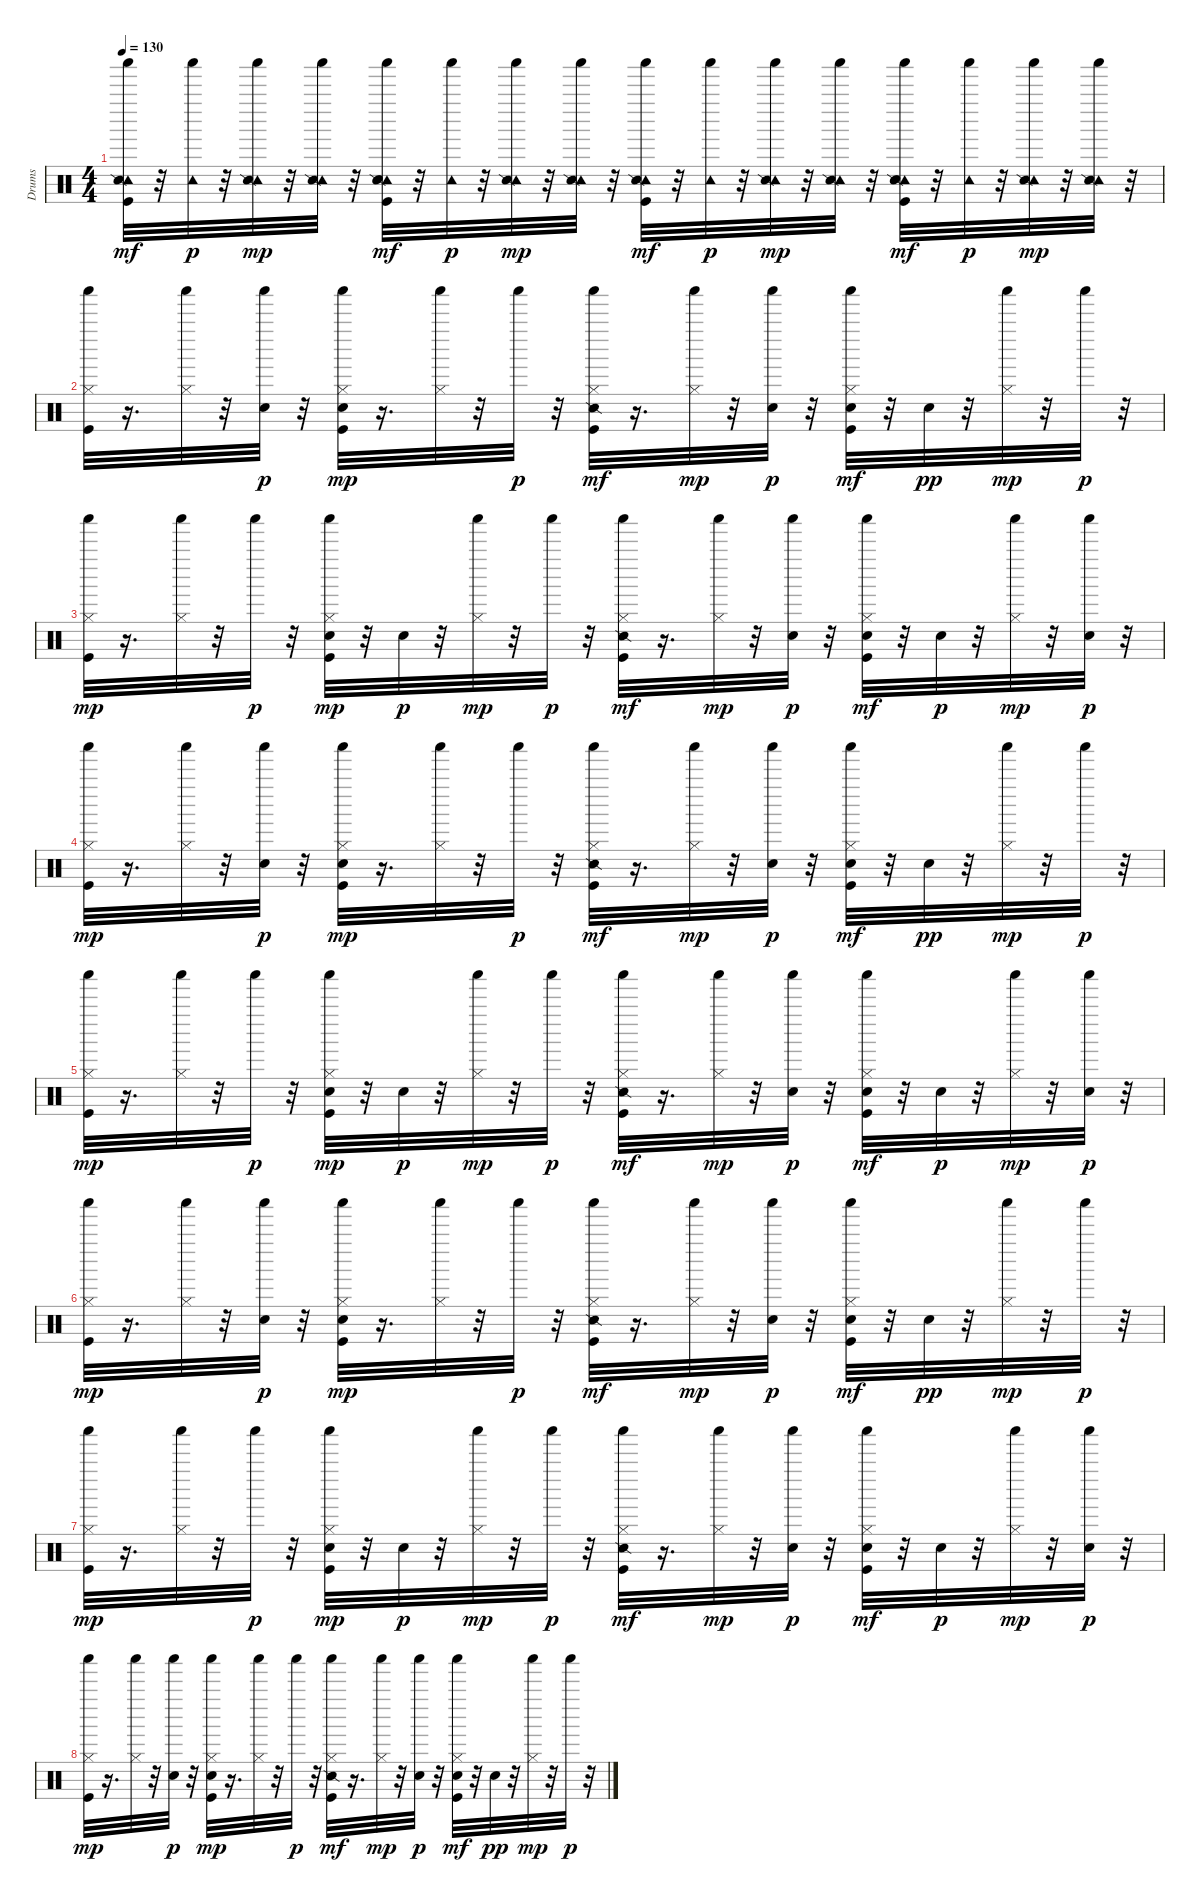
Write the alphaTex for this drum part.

\track ("Drums" "Drums") {instrument percussion}
\staff {score}
\articulation defaults
\ts (4 4)
\tempo 130
\clef neutral
\ks c
("Tambourine (hit)" "Shaker (hit)" "Kick (hit)" "Snare (side stick) 2").32{dy mf} r.32 ("Tambourine (hit)" "Shaker (hit)").32{dy p} r.32 ("Tambourine (hit)" "Shaker (hit)" "Snare (side stick) 2").32{dy mp} r.32 ("Tambourine (hit)" "Shaker (hit)" "Snare (side stick) 2").32 r.32 ("Tambourine (hit)" "Shaker (hit)" "Hand Clap (hit)" "Kick (hit)" "Snare (side stick) 2").32{dy mf} r.32 ("Tambourine (hit)" "Shaker (hit)").32{dy p} r.32 ("Tambourine (hit)" "Shaker (hit)" "Snare (side stick) 2").32{dy mp} r.32 ("Tambourine (hit)" "Shaker (hit)" "Snare (side stick) 2").32 r.32 ("Tambourine (hit)" "Shaker (hit)" "Kick (hit)" "Snare (side stick) 2").32{dy mf} r.32 ("Tambourine (hit)" "Shaker (hit)").32{dy p} r.32 ("Tambourine (hit)" "Shaker (hit)" "Snare (side stick) 2").32{dy mp} r.32 ("Tambourine (hit)" "Shaker (hit)" "Snare (side stick) 2").32 r.32 ("Tambourine (hit)" "Shaker (hit)" "Hand Clap (hit)" "Kick (hit)" "Snare (side stick) 2").32{dy mf} r.32 ("Tambourine (hit)" "Shaker (hit)").32{dy p} r.32 ("Tambourine (hit)" "Shaker (hit)" "Snare (side stick) 2").32{dy mp} r.32 ("Tambourine (hit)" "Shaker (hit)" "Snare (side stick) 2").32 r.32 |
("Kick (hit)" "Hi-Hat (closed)" "Shaker (hit)").32 r.16{d} ("Hi-Hat (closed)" "Shaker (hit)").32 r.32 ("Electric Snare (hit)" "Shaker (hit)").32{dy p} r.32 ("Kick (hit)" "Hi-Hat (closed)" "Shaker (hit)" "Snare (hit) 2").32{dy mp} r.16{d} ("Hi-Hat (closed)" "Shaker (hit)").32 r.32 "Shaker (hit)".32{dy p} r.32 ("Kick (hit)" "Hi-Hat (closed)" "Shaker (hit)" "Snare (side stick) 2").32{dy mf} r.16{d} ("Hi-Hat (closed)" "Shaker (hit)").32{dy mp} r.32 ("Electric Snare (hit)" "Shaker (hit)").32{dy p} r.32 ("Kick (hit)" "Hi-Hat (closed)" "Shaker (hit)" "Snare (hit) 2").32{dy mf} r.32 "Electric Snare (hit)".32{dy pp} r.32 ("Hi-Hat (closed)" "Shaker (hit)").32{dy mp} r.32 "Shaker (hit)".32{dy p} r.32 |
("Kick (hit)" "Hi-Hat (closed)" "Shaker (hit)").32{dy mp} r.16{d} ("Hi-Hat (closed)" "Shaker (hit)").32 r.32 "Shaker (hit)".32{dy p} r.32 ("Kick (hit)" "Hi-Hat (closed)" "Shaker (hit)" "Snare (hit) 2").32{dy mp} r.32 "Electric Snare (hit)".32{dy p} r.32 ("Hi-Hat (closed)" "Shaker (hit)").32{dy mp} r.32 "Shaker (hit)".32{dy p} r.32 ("Kick (hit)" "Hi-Hat (closed)" "Shaker (hit)" "Snare (side stick) 2").32{dy mf} r.16{d} ("Hi-Hat (closed)" "Shaker (hit)").32{dy mp} r.32 ("Electric Snare (hit)" "Shaker (hit)").32{dy p} r.32 ("Kick (hit)" "Hi-Hat (closed)" "Shaker (hit)" "Snare (hit) 2").32{dy mf} r.32 "Electric Snare (hit)".32{dy p} r.32 ("Hi-Hat (closed)" "Shaker (hit)").32{dy mp} r.32 ("Electric Snare (hit)" "Shaker (hit)").32{dy p} r.32 |
("Kick (hit)" "Hi-Hat (closed)" "Shaker (hit)").32{dy mp} r.16{d} ("Hi-Hat (closed)" "Shaker (hit)").32 r.32 ("Electric Snare (hit)" "Shaker (hit)").32{dy p} r.32 ("Kick (hit)" "Hi-Hat (closed)" "Shaker (hit)" "Snare (hit) 2").32{dy mp} r.16{d} ("Hi-Hat (closed)" "Shaker (hit)").32 r.32 "Shaker (hit)".32{dy p} r.32 ("Kick (hit)" "Hi-Hat (closed)" "Shaker (hit)" "Snare (side stick) 2").32{dy mf} r.16{d} ("Hi-Hat (closed)" "Shaker (hit)").32{dy mp} r.32 ("Electric Snare (hit)" "Shaker (hit)").32{dy p} r.32 ("Kick (hit)" "Hi-Hat (closed)" "Shaker (hit)" "Snare (hit) 2").32{dy mf} r.32 "Electric Snare (hit)".32{dy pp} r.32 ("Hi-Hat (closed)" "Shaker (hit)").32{dy mp} r.32 "Shaker (hit)".32{dy p} r.32 |
("Kick (hit)" "Hi-Hat (closed)" "Shaker (hit)").32{dy mp} r.16{d} ("Hi-Hat (closed)" "Shaker (hit)").32 r.32 "Shaker (hit)".32{dy p} r.32 ("Kick (hit)" "Hi-Hat (closed)" "Shaker (hit)" "Snare (hit) 2").32{dy mp} r.32 "Electric Snare (hit)".32{dy p} r.32 ("Hi-Hat (closed)" "Shaker (hit)").32{dy mp} r.32 "Shaker (hit)".32{dy p} r.32 ("Kick (hit)" "Hi-Hat (closed)" "Shaker (hit)" "Snare (side stick) 2").32{dy mf} r.16{d} ("Hi-Hat (closed)" "Shaker (hit)").32{dy mp} r.32 ("Electric Snare (hit)" "Shaker (hit)").32{dy p} r.32 ("Kick (hit)" "Hi-Hat (closed)" "Shaker (hit)" "Snare (hit) 2").32{dy mf} r.32 "Electric Snare (hit)".32{dy p} r.32 ("Hi-Hat (closed)" "Shaker (hit)").32{dy mp} r.32 ("Electric Snare (hit)" "Shaker (hit)").32{dy p} r.32 |
("Kick (hit)" "Hi-Hat (closed)" "Shaker (hit)").32{dy mp} r.16{d} ("Hi-Hat (closed)" "Shaker (hit)").32 r.32 ("Electric Snare (hit)" "Shaker (hit)").32{dy p} r.32 ("Kick (hit)" "Hi-Hat (closed)" "Shaker (hit)" "Snare (hit) 2").32{dy mp} r.16{d} ("Hi-Hat (closed)" "Shaker (hit)").32 r.32 "Shaker (hit)".32{dy p} r.32 ("Kick (hit)" "Hi-Hat (closed)" "Shaker (hit)" "Snare (side stick) 2").32{dy mf} r.16{d} ("Hi-Hat (closed)" "Shaker (hit)").32{dy mp} r.32 ("Electric Snare (hit)" "Shaker (hit)").32{dy p} r.32 ("Kick (hit)" "Hi-Hat (closed)" "Shaker (hit)" "Snare (hit) 2").32{dy mf} r.32 "Electric Snare (hit)".32{dy pp} r.32 ("Hi-Hat (closed)" "Shaker (hit)").32{dy mp} r.32 "Shaker (hit)".32{dy p} r.32 |
("Kick (hit)" "Hi-Hat (closed)" "Shaker (hit)").32{dy mp} r.16{d} ("Hi-Hat (closed)" "Shaker (hit)").32 r.32 "Shaker (hit)".32{dy p} r.32 ("Kick (hit)" "Hi-Hat (closed)" "Shaker (hit)" "Snare (hit) 2").32{dy mp} r.32 "Electric Snare (hit)".32{dy p} r.32 ("Hi-Hat (closed)" "Shaker (hit)").32{dy mp} r.32 "Shaker (hit)".32{dy p} r.32 ("Kick (hit)" "Hi-Hat (closed)" "Shaker (hit)" "Snare (side stick) 2").32{dy mf} r.16{d} ("Hi-Hat (closed)" "Shaker (hit)").32{dy mp} r.32 ("Electric Snare (hit)" "Shaker (hit)").32{dy p} r.32 ("Kick (hit)" "Hi-Hat (closed)" "Shaker (hit)" "Snare (hit) 2").32{dy mf} r.32 "Electric Snare (hit)".32{dy p} r.32 ("Hi-Hat (closed)" "Shaker (hit)").32{dy mp} r.32 ("Electric Snare (hit)" "Shaker (hit)").32{dy p} r.32 |
("Kick (hit)" "Hi-Hat (closed)" "Shaker (hit)").32{dy mp} r.16{d} ("Hi-Hat (closed)" "Shaker (hit)").32 r.32 ("Electric Snare (hit)" "Shaker (hit)").32{dy p} r.32 ("Kick (hit)" "Hi-Hat (closed)" "Shaker (hit)" "Snare (hit) 2").32{dy mp} r.16{d} ("Hi-Hat (closed)" "Shaker (hit)").32 r.32 "Shaker (hit)".32{dy p} r.32 ("Kick (hit)" "Hi-Hat (closed)" "Shaker (hit)" "Snare (side stick) 2").32{dy mf} r.16{d} ("Hi-Hat (closed)" "Shaker (hit)").32{dy mp} r.32 ("Electric Snare (hit)" "Shaker (hit)").32{dy p} r.32 ("Kick (hit)" "Hi-Hat (closed)" "Shaker (hit)" "Snare (hit) 2").32{dy mf} r.32 "Electric Snare (hit)".32{dy pp} r.32 ("Hi-Hat (closed)" "Shaker (hit)").32{dy mp} r.32 "Shaker (hit)".32{dy p} r.32
